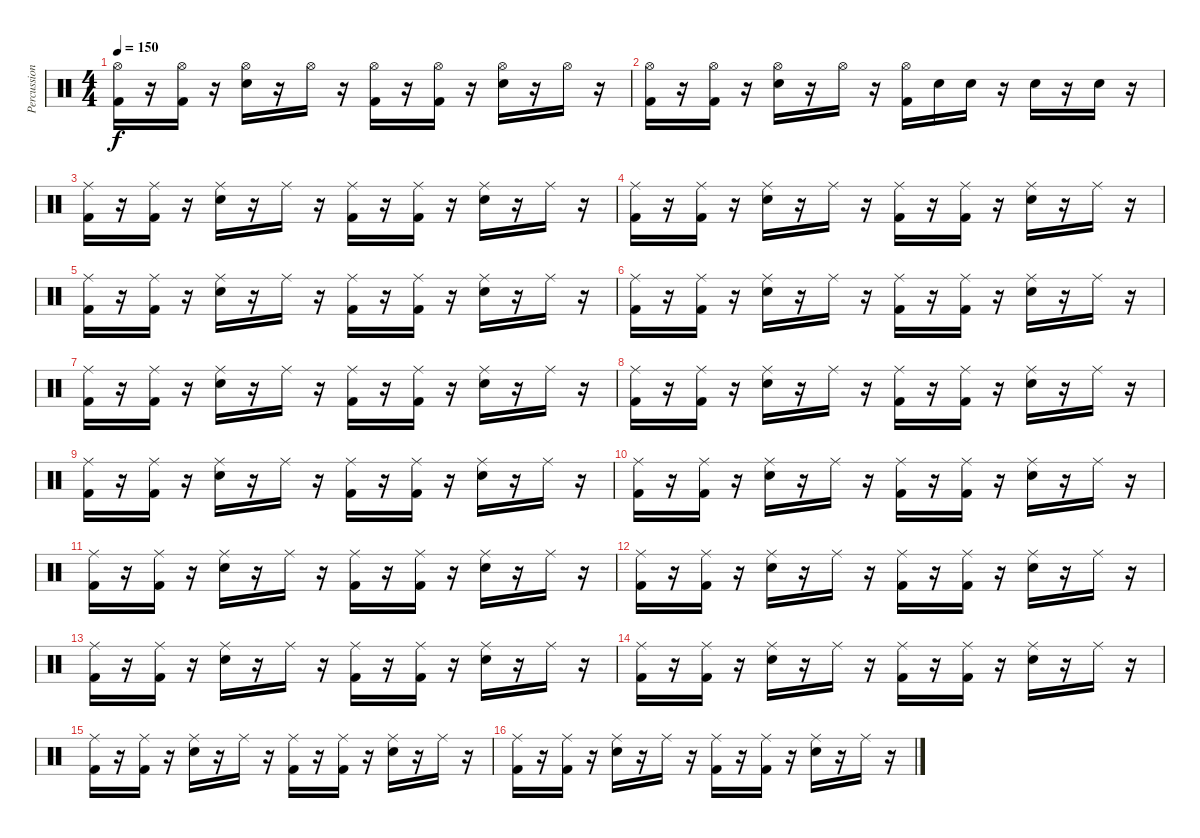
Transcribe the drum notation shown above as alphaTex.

\track ("Percussions" "Percussion") {instrument percussion}
\staff {score}
\articulation defaults
\ts (4 4)
\tempo 150
\clef neutral
\ks c
("Hi-Hat (open)" "Kick (hit) 2").16{dy f} r.16 ("Hi-Hat (open)" "Kick (hit) 2").16 r.16 ("Hi-Hat (open)" "Snare (hit) 2").16 r.16 "Hi-Hat (open)".16 r.16 ("Hi-Hat (open)" "Kick (hit) 2").16 r.16 ("Hi-Hat (open)" "Kick (hit) 2").16 r.16 ("Hi-Hat (open)" "Snare (hit) 2").16 r.16 "Hi-Hat (open)".16 r.16 |
("Hi-Hat (open)" "Kick (hit) 2").16 r.16 ("Hi-Hat (open)" "Kick (hit) 2").16 r.16 ("Hi-Hat (open)" "Snare (hit) 2").16 r.16 "Hi-Hat (open)".16 r.16 ("Hi-Hat (open)" "Kick (hit) 2").16 "Snare (hit) 2".16 "Snare (hit) 2".16 r.16 "Snare (hit) 2".16 r.16 "Snare (hit) 2".16 r.16 |
("Ride (middle)" "Kick (hit) 2").16 r.16 ("Ride (middle)" "Kick (hit) 2").16 r.16 ("Ride (middle)" "Snare (hit) 2").16 r.16 "Ride (middle)".16 r.16 ("Ride (middle)" "Kick (hit) 2").16 r.16 ("Ride (middle)" "Kick (hit) 2").16 r.16 ("Ride (middle)" "Snare (hit) 2").16 r.16 "Ride (middle)".16 r.16 |
("Ride (middle)" "Kick (hit) 2").16 r.16 ("Ride (middle)" "Kick (hit) 2").16 r.16 ("Ride (middle)" "Snare (hit) 2").16 r.16 "Ride (middle)".16 r.16 ("Ride (middle)" "Kick (hit) 2").16 r.16 ("Ride (middle)" "Kick (hit) 2").16 r.16 ("Ride (middle)" "Snare (hit) 2").16 r.16 "Ride (middle)".16 r.16 |
("Ride (middle)" "Kick (hit) 2").16 r.16 ("Ride (middle)" "Kick (hit) 2").16 r.16 ("Ride (middle)" "Snare (hit) 2").16 r.16 "Ride (middle)".16 r.16 ("Ride (middle)" "Kick (hit) 2").16 r.16 ("Ride (middle)" "Kick (hit) 2").16 r.16 ("Ride (middle)" "Snare (hit) 2").16 r.16 "Ride (middle)".16 r.16 |
("Ride (middle)" "Kick (hit) 2").16 r.16 ("Ride (middle)" "Kick (hit) 2").16 r.16 ("Ride (middle)" "Snare (hit) 2").16 r.16 "Ride (middle)".16 r.16 ("Ride (middle)" "Kick (hit) 2").16 r.16 ("Ride (middle)" "Kick (hit) 2").16 r.16 ("Ride (middle)" "Snare (hit) 2").16 r.16 "Ride (middle)".16 r.16 |
("Ride (middle)" "Kick (hit) 2").16 r.16 ("Ride (middle)" "Kick (hit) 2").16 r.16 ("Ride (middle)" "Snare (hit) 2").16 r.16 "Ride (middle)".16 r.16 ("Ride (middle)" "Kick (hit) 2").16 r.16 ("Ride (middle)" "Kick (hit) 2").16 r.16 ("Ride (middle)" "Snare (hit) 2").16 r.16 "Ride (middle)".16 r.16 |
("Ride (middle)" "Kick (hit) 2").16 r.16 ("Ride (middle)" "Kick (hit) 2").16 r.16 ("Ride (middle)" "Snare (hit) 2").16 r.16 "Ride (middle)".16 r.16 ("Ride (middle)" "Kick (hit) 2").16 r.16 ("Ride (middle)" "Kick (hit) 2").16 r.16 ("Ride (middle)" "Snare (hit) 2").16 r.16 "Ride (middle)".16 r.16 |
("Ride (middle)" "Kick (hit) 2").16 r.16 ("Ride (middle)" "Kick (hit) 2").16 r.16 ("Ride (middle)" "Snare (hit) 2").16 r.16 "Ride (middle)".16 r.16 ("Ride (middle)" "Kick (hit) 2").16 r.16 ("Ride (middle)" "Kick (hit) 2").16 r.16 ("Ride (middle)" "Snare (hit) 2").16 r.16 "Ride (middle)".16 r.16 |
("Ride (middle)" "Kick (hit) 2").16 r.16 ("Ride (middle)" "Kick (hit) 2").16 r.16 ("Ride (middle)" "Snare (hit) 2").16 r.16 "Ride (middle)".16 r.16 ("Ride (middle)" "Kick (hit) 2").16 r.16 ("Ride (middle)" "Kick (hit) 2").16 r.16 ("Ride (middle)" "Snare (hit) 2").16 r.16 "Ride (middle)".16 r.16 |
("Ride (middle)" "Kick (hit) 2").16 r.16 ("Ride (middle)" "Kick (hit) 2").16 r.16 ("Ride (middle)" "Snare (hit) 2").16 r.16 "Ride (middle)".16 r.16 ("Ride (middle)" "Kick (hit) 2").16 r.16 ("Ride (middle)" "Kick (hit) 2").16 r.16 ("Ride (middle)" "Snare (hit) 2").16 r.16 "Ride (middle)".16 r.16 |
("Ride (middle)" "Kick (hit) 2").16 r.16 ("Ride (middle)" "Kick (hit) 2").16 r.16 ("Ride (middle)" "Snare (hit) 2").16 r.16 "Ride (middle)".16 r.16 ("Ride (middle)" "Kick (hit) 2").16 r.16 ("Ride (middle)" "Kick (hit) 2").16 r.16 ("Ride (middle)" "Snare (hit) 2").16 r.16 "Ride (middle)".16 r.16 |
("Ride (middle)" "Kick (hit) 2").16 r.16 ("Ride (middle)" "Kick (hit) 2").16 r.16 ("Ride (middle)" "Snare (hit) 2").16 r.16 "Ride (middle)".16 r.16 ("Ride (middle)" "Kick (hit) 2").16 r.16 ("Ride (middle)" "Kick (hit) 2").16 r.16 ("Ride (middle)" "Snare (hit) 2").16 r.16 "Ride (middle)".16 r.16 |
("Ride (middle)" "Kick (hit) 2").16 r.16 ("Ride (middle)" "Kick (hit) 2").16 r.16 ("Ride (middle)" "Snare (hit) 2").16 r.16 "Ride (middle)".16 r.16 ("Ride (middle)" "Kick (hit) 2").16 r.16 ("Ride (middle)" "Kick (hit) 2").16 r.16 ("Ride (middle)" "Snare (hit) 2").16 r.16 "Ride (middle)".16 r.16 |
("Ride (middle)" "Kick (hit) 2").16 r.16 ("Ride (middle)" "Kick (hit) 2").16 r.16 ("Ride (middle)" "Snare (hit) 2").16 r.16 "Ride (middle)".16 r.16 ("Ride (middle)" "Kick (hit) 2").16 r.16 ("Ride (middle)" "Kick (hit) 2").16 r.16 ("Ride (middle)" "Snare (hit) 2").16 r.16 "Ride (middle)".16 r.16 |
("Ride (middle)" "Kick (hit) 2").16 r.16 ("Ride (middle)" "Kick (hit) 2").16 r.16 ("Ride (middle)" "Snare (hit) 2").16 r.16 "Ride (middle)".16 r.16 ("Ride (middle)" "Kick (hit) 2").16 r.16 ("Ride (middle)" "Kick (hit) 2").16 r.16 ("Ride (middle)" "Snare (hit) 2").16 r.16 "Ride (middle)".16 r.16
